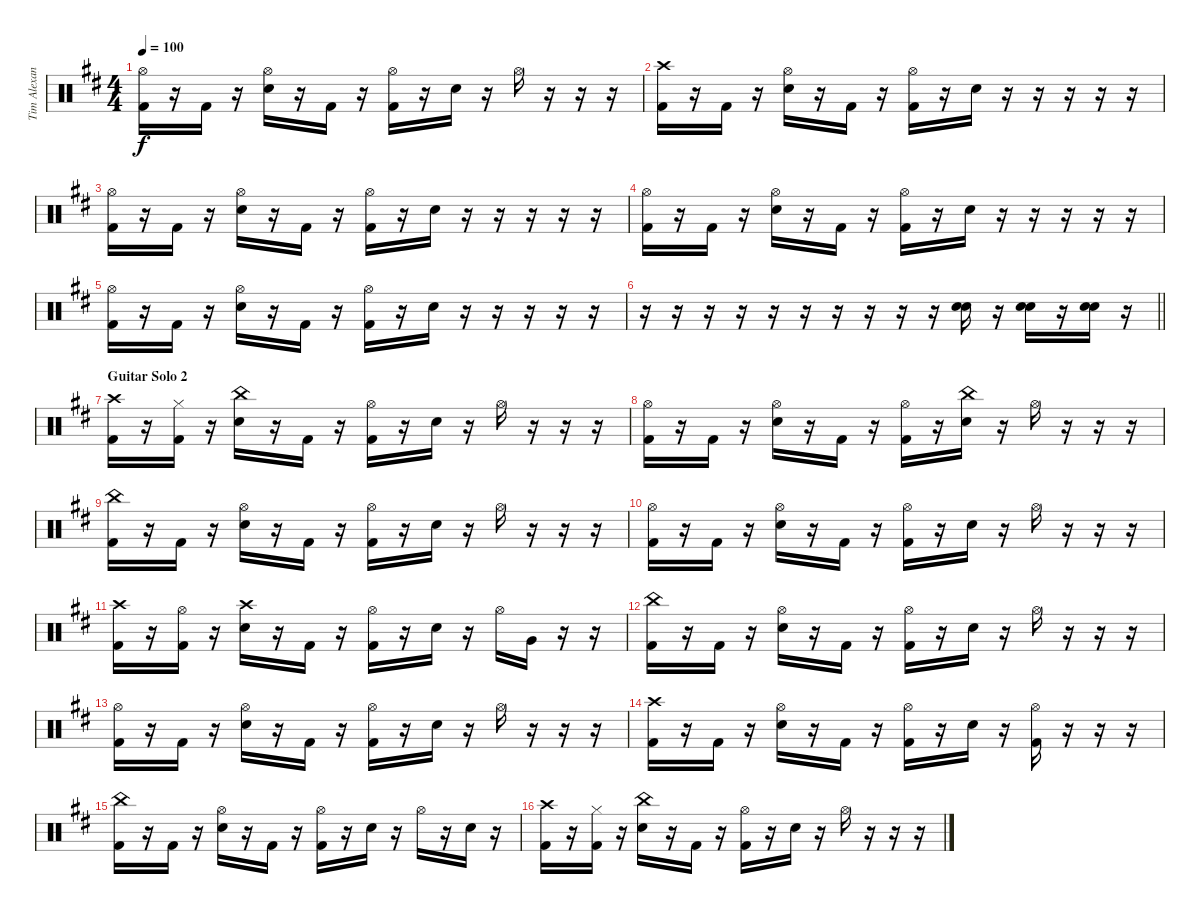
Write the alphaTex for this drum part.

\track ("Tim Alexander" "Tim Alexan") {instrument percussion}
\staff {score}
\articulation defaults
\ts (4 4)
\tempo 100
\clef neutral
\ks d
("Hi-Hat (open)" "Kick (hit) 2").16{dy f} r.16 "Kick (hit) 2".16 r.16 ("Hi-Hat (open)" "Snare (hit) 2").16 r.16 "Kick (hit) 2".16 r.16 ("Hi-Hat (open)" "Kick (hit) 2").16 r.16 "Snare (hit) 2".16 r.16 "Hi-Hat (open)".16 r.16 r.16 r.16 |
("Crash high (hit)" "Kick (hit) 2").16 r.16 "Kick (hit) 2".16 r.16 ("Hi-Hat (open)" "Snare (hit) 2").16 r.16 "Kick (hit) 2".16 r.16 ("Hi-Hat (open)" "Kick (hit) 2").16 r.16 "Snare (hit) 2".16 r.16 r.16 r.16 r.16 r.16 |
("Hi-Hat (open)" "Kick (hit) 2").16 r.16 "Kick (hit) 2".16 r.16 ("Hi-Hat (open)" "Snare (hit) 2").16 r.16 "Kick (hit) 2".16 r.16 ("Hi-Hat (open)" "Kick (hit) 2").16 r.16 "Snare (hit) 2".16 r.16 r.16 r.16 r.16 r.16 |
("Hi-Hat (open)" "Kick (hit) 2").16 r.16 "Kick (hit) 2".16 r.16 ("Hi-Hat (open)" "Snare (hit) 2").16 r.16 "Kick (hit) 2".16 r.16 ("Hi-Hat (open)" "Kick (hit) 2").16 r.16 "Snare (hit) 2".16 r.16 r.16 r.16 r.16 r.16 |
("Hi-Hat (open)" "Kick (hit) 2").16 r.16 "Kick (hit) 2".16 r.16 ("Hi-Hat (open)" "Snare (hit) 2").16 r.16 "Kick (hit) 2".16 r.16 ("Hi-Hat (open)" "Kick (hit) 2").16 r.16 "Snare (hit) 2".16 r.16 r.16 r.16 r.16 r.16 |
\barLineRight lightlight
r.16 r.16 r.16 r.16 r.16 r.16 r.16 r.16 r.16 r.16 ("Snare (hit) 2" "Snare (hit) 2").16 r.16 ("Snare (hit) 2" "Snare (hit) 2").16 r.16 ("Snare (hit) 2" "Snare (hit) 2").16 r.16 |
\section ("" "Guitar Solo 2")
("Crash high (hit)" "Kick (hit) 2").16 r.16 ("Hi-Hat (closed)" "Kick (hit) 2").16 r.16 ("China (hit)" "Snare (hit) 2").16 r.16 "Kick (hit) 2".16 r.16 ("Hi-Hat (open)" "Kick (hit) 2").16 r.16 "Snare (hit) 2".16 r.16 "Hi-Hat (open)".16 r.16 r.16 r.16 |
("Hi-Hat (open)" "Kick (hit) 2").16 r.16 "Kick (hit) 2".16 r.16 ("Hi-Hat (open)" "Snare (hit) 2").16 r.16 "Kick (hit) 2".16 r.16 ("Hi-Hat (open)" "Kick (hit) 2").16 r.16 ("China (hit)" "Snare (hit) 2").16 r.16 "Hi-Hat (open)".16 r.16 r.16 r.16 |
("China (hit)" "Kick (hit) 2").16 r.16 "Kick (hit) 2".16 r.16 ("Hi-Hat (open)" "Snare (hit) 2").16 r.16 "Kick (hit) 2".16 r.16 ("Hi-Hat (open)" "Kick (hit) 2").16 r.16 "Snare (hit) 2".16 r.16 "Hi-Hat (open)".16 r.16 r.16 r.16 |
("Hi-Hat (open)" "Kick (hit) 2").16 r.16 "Kick (hit) 2".16 r.16 ("Hi-Hat (open)" "Snare (hit) 2").16 r.16 "Kick (hit) 2".16 r.16 ("Hi-Hat (open)" "Kick (hit) 2").16 r.16 "Snare (hit) 2".16 r.16 "Hi-Hat (open)".16 r.16 r.16 r.16 |
("Crash high (hit)" "Kick (hit) 2").16 r.16 ("Hi-Hat (open)" "Kick (hit) 2").16 r.16 ("Crash high (hit)" "Snare (hit) 2").16 r.16 "Kick (hit) 2".16 r.16 ("Hi-Hat (open)" "Kick (hit) 2").16 r.16 "Snare (hit) 2".16 r.16 "Hi-Hat (open)".16 "Very Low Tom (hit)".16 r.16 r.16 |
("China (hit)" "Kick (hit) 2").16 r.16 "Kick (hit) 2".16 r.16 ("Hi-Hat (open)" "Snare (hit) 2").16 r.16 "Kick (hit) 2".16 r.16 ("Hi-Hat (open)" "Kick (hit) 2").16 r.16 "Snare (hit) 2".16 r.16 "Hi-Hat (open)".16 r.16 r.16 r.16 |
("Hi-Hat (open)" "Kick (hit) 2").16 r.16 "Kick (hit) 2".16 r.16 ("Hi-Hat (open)" "Snare (hit) 2").16 r.16 "Kick (hit) 2".16 r.16 ("Hi-Hat (open)" "Kick (hit) 2").16 r.16 "Snare (hit) 2".16 r.16 "Hi-Hat (open)".16 r.16 r.16 r.16 |
("Crash high (hit)" "Kick (hit) 2").16 r.16 "Kick (hit) 2".16 r.16 ("Hi-Hat (open)" "Snare (hit) 2").16 r.16 "Kick (hit) 2".16 r.16 ("Hi-Hat (open)" "Kick (hit) 2").16 r.16 "Snare (hit) 2".16 r.16 ("Hi-Hat (open)" "Kick (hit) 2").16 r.16 r.16 r.16 |
("China (hit)" "Kick (hit) 2").16 r.16 "Kick (hit) 2".16 r.16 ("Hi-Hat (open)" "Snare (hit) 2").16 r.16 "Kick (hit) 2".16 r.16 ("Hi-Hat (open)" "Kick (hit) 2").16 r.16 "Snare (hit) 2".16 r.16 "Hi-Hat (open)".16 r.16 "Snare (hit) 2".16 r.16 |
("Crash high (hit)" "Kick (hit) 2").16 r.16 ("Hi-Hat (closed)" "Kick (hit) 2").16 r.16 ("China (hit)" "Snare (hit) 2").16 r.16 "Kick (hit) 2".16 r.16 ("Hi-Hat (open)" "Kick (hit) 2").16 r.16 "Snare (hit) 2".16 r.16 "Hi-Hat (open)".16 r.16 r.16 r.16
